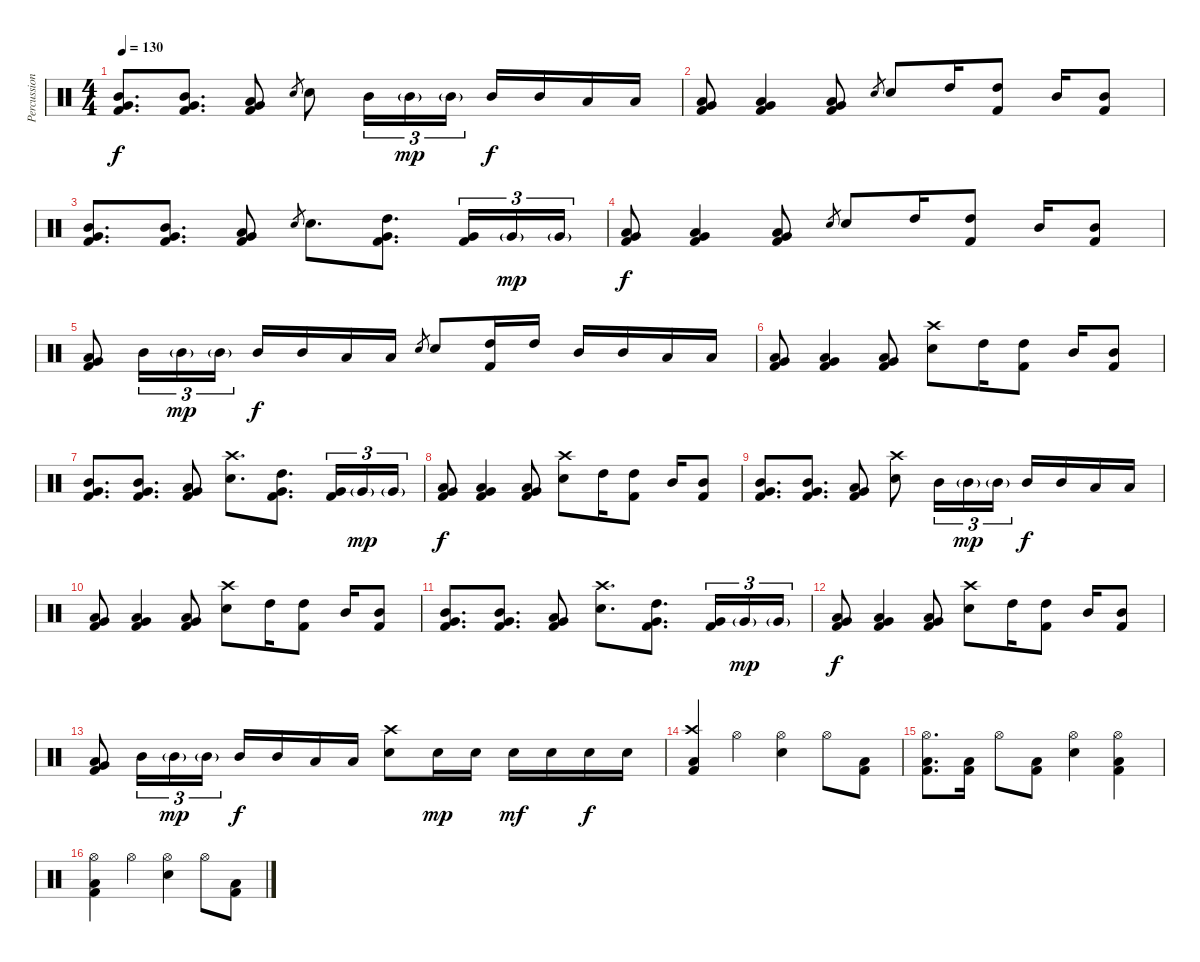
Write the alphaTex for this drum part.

\track ("Percussion" "Percussion") {instrument percussion}
\staff {score}
\articulation defaults
\ts (4 4)
\tempo 130
\clef neutral
\ks c
("Mid Tom (hit)" "Very Low Tom (hit)" "Kick (hit) 2").8{d dy f} ("Mid Tom (hit)" "Very Low Tom (hit)" "Kick (hit) 2").8{d} ("Low Tom (hit)" "Very Low Tom (hit)" "Kick (hit) 2").8 "Electric Snare (hit)".8{gr} "Electric Snare (hit)".8 "Mid Tom (hit)".16{tu (3 2)} "Mid Tom (hit)"{g}.16{tu (3 2) dy mp} "Mid Tom (hit)"{g}.16{tu (3 2)} "Mid Tom (hit)".16{dy f} "Mid Tom (hit)".16 "Low Tom (hit)".16 "Low Tom (hit)".16 |
("Low Tom (hit)" "Very Low Tom (hit)" "Kick (hit) 2").8 ("Low Tom (hit)" "Very Low Tom (hit)" "Kick (hit) 2").4 ("Low Tom (hit)" "Very Low Tom (hit)" "Kick (hit) 2").8 "Electric Snare (hit)".8{gr} "Electric Snare (hit)".8 "High Tom (hit)".16 ("High Tom (hit)" "Kick (hit) 2").8 "Mid Tom (hit)".16 ("Mid Tom (hit)" "Kick (hit) 2").8 |
("Mid Tom (hit)" "Very Low Tom (hit)" "Kick (hit) 2").8{d} ("Mid Tom (hit)" "Very Low Tom (hit)" "Kick (hit) 2").8{d} ("Low Tom (hit)" "Very Low Tom (hit)" "Kick (hit) 2").8 "Electric Snare (hit)".8{gr} "Electric Snare (hit)".8{d} ("High Tom (hit)" "Very Low Tom (hit)" "Kick (hit) 2").8{d} ("Very Low Tom (hit)" "Kick (hit) 2").16{tu (3 2)} "Very Low Tom (hit)"{g}.16{tu (3 2) dy mp} "Very Low Tom (hit)"{g}.16{tu (3 2)} |
("Low Tom (hit)" "Very Low Tom (hit)" "Kick (hit) 2").8{dy f} ("Low Tom (hit)" "Very Low Tom (hit)" "Kick (hit) 2").4 ("Low Tom (hit)" "Very Low Tom (hit)" "Kick (hit) 2").8 "Electric Snare (hit)".8{gr} "Electric Snare (hit)".8 "High Tom (hit)".16 ("High Tom (hit)" "Kick (hit) 2").8 "Mid Tom (hit)".16 ("Mid Tom (hit)" "Kick (hit) 2").8 |
("Low Tom (hit)" "Very Low Tom (hit)" "Kick (hit) 2").8 "Mid Tom (hit)".16{tu (3 2)} "Mid Tom (hit)"{g}.16{tu (3 2) dy mp} "Mid Tom (hit)"{g}.16{tu (3 2)} "Mid Tom (hit)".16{dy f} "Mid Tom (hit)".16 "Low Tom (hit)".16 "Low Tom (hit)".16 "Electric Snare (hit)".8{gr} "Electric Snare (hit)".8 ("High Tom (hit)" "Kick (hit) 2").16 "High Tom (hit)".16 "Mid Tom (hit)".16 "Mid Tom (hit)".16 "Low Tom (hit)".16 "Low Tom (hit)".16 |
("Low Tom (hit)" "Very Low Tom (hit)" "Kick (hit) 2").8 ("Low Tom (hit)" "Very Low Tom (hit)" "Kick (hit) 2").4 ("Low Tom (hit)" "Very Low Tom (hit)" "Kick (hit) 2").8 ("Crash high (hit)" "Electric Snare (hit)").8 "High Tom (hit)".16 ("High Tom (hit)" "Kick (hit) 2").8 "Mid Tom (hit)".16 ("Mid Tom (hit)" "Kick (hit) 2").8 |
("Mid Tom (hit)" "Very Low Tom (hit)" "Kick (hit) 2").8{d} ("Mid Tom (hit)" "Very Low Tom (hit)" "Kick (hit) 2").8{d} ("Low Tom (hit)" "Very Low Tom (hit)" "Kick (hit) 2").8 ("Crash high (hit)" "Electric Snare (hit)").8{d} ("High Tom (hit)" "Very Low Tom (hit)" "Kick (hit) 2").8{d} ("Very Low Tom (hit)" "Kick (hit) 2").16{tu (3 2)} "Very Low Tom (hit)"{g}.16{tu (3 2) dy mp} "Very Low Tom (hit)"{g}.16{tu (3 2)} |
("Low Tom (hit)" "Very Low Tom (hit)" "Kick (hit) 2").8{dy f} ("Low Tom (hit)" "Very Low Tom (hit)" "Kick (hit) 2").4 ("Low Tom (hit)" "Very Low Tom (hit)" "Kick (hit) 2").8 ("Crash high (hit)" "Electric Snare (hit)").8 "High Tom (hit)".16 ("High Tom (hit)" "Kick (hit) 2").8 "Mid Tom (hit)".16 ("Mid Tom (hit)" "Kick (hit) 2").8 |
("Mid Tom (hit)" "Very Low Tom (hit)" "Kick (hit) 2").8{d} ("Mid Tom (hit)" "Very Low Tom (hit)" "Kick (hit) 2").8{d} ("Low Tom (hit)" "Very Low Tom (hit)" "Kick (hit) 2").8 ("Crash high (hit)" "Electric Snare (hit)").8 "Mid Tom (hit)".16{tu (3 2)} "Mid Tom (hit)"{g}.16{tu (3 2) dy mp} "Mid Tom (hit)"{g}.16{tu (3 2)} "Mid Tom (hit)".16{dy f} "Mid Tom (hit)".16 "Low Tom (hit)".16 "Low Tom (hit)".16 |
("Low Tom (hit)" "Very Low Tom (hit)" "Kick (hit) 2").8 ("Low Tom (hit)" "Very Low Tom (hit)" "Kick (hit) 2").4 ("Low Tom (hit)" "Very Low Tom (hit)" "Kick (hit) 2").8 ("Crash high (hit)" "Electric Snare (hit)").8 "High Tom (hit)".16 ("High Tom (hit)" "Kick (hit) 2").8 "Mid Tom (hit)".16 ("Mid Tom (hit)" "Kick (hit) 2").8 |
("Mid Tom (hit)" "Very Low Tom (hit)" "Kick (hit) 2").8{d} ("Mid Tom (hit)" "Very Low Tom (hit)" "Kick (hit) 2").8{d} ("Low Tom (hit)" "Very Low Tom (hit)" "Kick (hit) 2").8 ("Crash high (hit)" "Electric Snare (hit)").8{d} ("High Tom (hit)" "Very Low Tom (hit)" "Kick (hit) 2").8{d} ("Very Low Tom (hit)" "Kick (hit) 2").16{tu (3 2)} "Very Low Tom (hit)"{g}.16{tu (3 2) dy mp} "Very Low Tom (hit)"{g}.16{tu (3 2)} |
("Low Tom (hit)" "Very Low Tom (hit)" "Kick (hit) 2").8{dy f} ("Low Tom (hit)" "Very Low Tom (hit)" "Kick (hit) 2").4 ("Low Tom (hit)" "Very Low Tom (hit)" "Kick (hit) 2").8 ("Crash high (hit)" "Electric Snare (hit)").8 "High Tom (hit)".16 ("High Tom (hit)" "Kick (hit) 2").8 "Mid Tom (hit)".16 ("Mid Tom (hit)" "Kick (hit) 2").8 |
("Low Tom (hit)" "Very Low Tom (hit)" "Kick (hit) 2").8 "Mid Tom (hit)".16{tu (3 2)} "Mid Tom (hit)"{g}.16{tu (3 2) dy mp} "Mid Tom (hit)"{g}.16{tu (3 2)} "Mid Tom (hit)".16{dy f} "Mid Tom (hit)".16 "Low Tom (hit)".16 "Low Tom (hit)".16 ("Crash high (hit)" "Electric Snare (hit)").8 "Electric Snare (hit)".16{dy mp volume 12} "Electric Snare (hit)".16 "Electric Snare (hit)".16{dy mf} "Electric Snare (hit)".16 "Electric Snare (hit)".16{dy f} "Electric Snare (hit)".16 |
("Crash high (hit)" "Low Floor Tom (hit)" "Kick (hit) 2").4 "Hi-Hat (open)".4 ("Hi-Hat (open)" "Electric Snare (hit)").4 "Hi-Hat (open)".8 ("Low Floor Tom (hit)" "Kick (hit) 2").8 |
("Hi-Hat (open)" "Low Floor Tom (hit)" "Kick (hit) 2").8{d} ("Low Floor Tom (hit)" "Kick (hit) 2").16 "Hi-Hat (open)".8 ("Low Floor Tom (hit)" "Kick (hit) 2").8 ("Hi-Hat (open)" "Electric Snare (hit)").4 ("Hi-Hat (open)" "Low Floor Tom (hit)" "Kick (hit) 2").4 |
("Hi-Hat (open)" "Low Floor Tom (hit)" "Kick (hit) 2").4 "Hi-Hat (open)".4 ("Hi-Hat (open)" "Electric Snare (hit)").4 "Hi-Hat (open)".8 ("Low Floor Tom (hit)" "Kick (hit) 2").8
